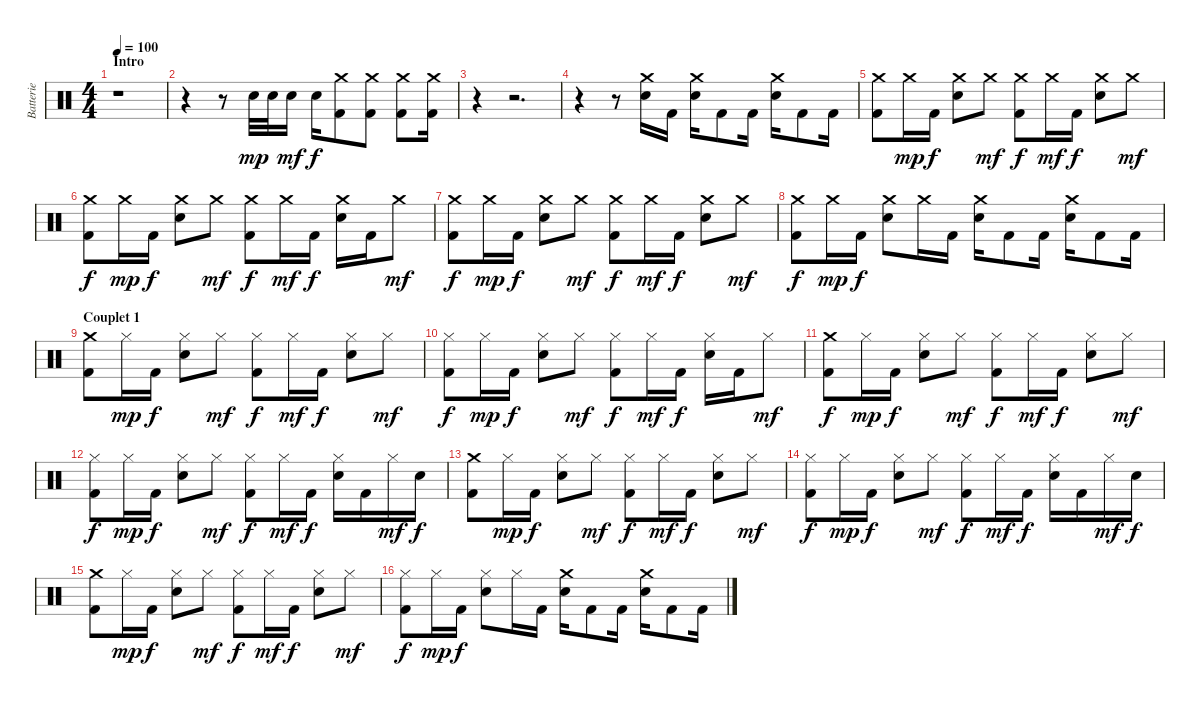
\track ("Batterie" "Batterie") {instrument percussion}
\staff {score}
\articulation defaults
\ts (4 4)
\section ("" "Intro")
\tempo 100
\clef neutral
\ks c
r.1{dy mp} |
r.4 r.8 "Electric Snare (hit)".32 "Electric Snare (hit)".32 "Electric Snare (hit)".16{dy mf} "Electric Snare (hit)".16{dy f} ("Crash medium (hit)" "Kick (hit) 2").8 ("Crash medium (hit)" "Kick (hit) 2").8 ("Crash medium (hit)" "Kick (hit) 2").8 ("Crash medium (hit)" "Kick (hit) 2").16 |
r.4 r.2{d} |
r.4 r.8 ("Crash medium (hit)" "Electric Snare (hit)").16 "Kick (hit) 2".16 ("Crash medium (hit)" "Electric Snare (hit)").16 "Kick (hit) 2".8 "Kick (hit) 2".16 ("Crash medium (hit)" "Electric Snare (hit)").16 "Kick (hit) 2".8 "Kick (hit) 2".16 |
("Crash medium (hit)" "Kick (hit) 2").8 "Crash medium (hit)".16{dy mp} "Kick (hit) 2".16{dy f} ("Crash medium (hit)" "Electric Snare (hit)").8 "Crash medium (hit)".8{dy mf} ("Crash medium (hit)" "Kick (hit) 2").8{dy f} "Crash medium (hit)".16{dy mf} "Kick (hit) 2".16{dy f} ("Crash medium (hit)" "Electric Snare (hit)").8 "Crash medium (hit)".8{dy mf} |
("Crash medium (hit)" "Kick (hit) 2").8{dy f} "Crash medium (hit)".16{dy mp} "Kick (hit) 2".16{dy f} ("Crash medium (hit)" "Electric Snare (hit)").8 "Crash medium (hit)".8{dy mf} ("Crash medium (hit)" "Kick (hit) 2").8{dy f} "Crash medium (hit)".16{dy mf} "Kick (hit) 2".16{dy f} ("Crash medium (hit)" "Electric Snare (hit)").16 "Kick (hit) 2".16 "Crash medium (hit)".8{dy mf} |
("Crash medium (hit)" "Kick (hit) 2").8{dy f} "Crash medium (hit)".16{dy mp} "Kick (hit) 2".16{dy f} ("Crash medium (hit)" "Electric Snare (hit)").8 "Crash medium (hit)".8{dy mf} ("Crash medium (hit)" "Kick (hit) 2").8{dy f} "Crash medium (hit)".16{dy mf} "Kick (hit) 2".16{dy f} ("Crash medium (hit)" "Electric Snare (hit)").8 "Crash medium (hit)".8{dy mf} |
("Crash medium (hit)" "Kick (hit) 2").8{dy f} "Crash medium (hit)".16{dy mp} "Kick (hit) 2".16{dy f} ("Crash medium (hit)" "Electric Snare (hit)").8 "Crash medium (hit)".16 "Kick (hit) 2".16 ("Crash medium (hit)" "Electric Snare (hit)").16 "Kick (hit) 2".8 "Kick (hit) 2".16 ("Crash medium (hit)" "Electric Snare (hit)").16 "Kick (hit) 2".8 "Kick (hit) 2".16 |
\section ("" "Couplet 1")
("Crash medium (hit)" "Kick (hit) 2").8 "Hi-Hat (closed)".16{dy mp} "Kick (hit) 2".16{dy f} ("Hi-Hat (closed)" "Electric Snare (hit)").8 "Hi-Hat (closed)".8{dy mf} ("Hi-Hat (closed)" "Kick (hit) 2").8{dy f} "Hi-Hat (closed)".16{dy mf} "Kick (hit) 2".16{dy f} ("Hi-Hat (closed)" "Electric Snare (hit)").8 "Hi-Hat (closed)".8{dy mf} |
("Hi-Hat (closed)" "Kick (hit) 2").8{dy f} "Hi-Hat (closed)".16{dy mp} "Kick (hit) 2".16{dy f} ("Hi-Hat (closed)" "Electric Snare (hit)").8 "Hi-Hat (closed)".8{dy mf} ("Hi-Hat (closed)" "Kick (hit) 2").8{dy f} "Hi-Hat (closed)".16{dy mf} "Kick (hit) 2".16{dy f} ("Hi-Hat (closed)" "Electric Snare (hit)").16 "Kick (hit) 2".16 "Hi-Hat (closed)".8{dy mf} |
("Crash medium (hit)" "Kick (hit) 2").8{dy f} "Hi-Hat (closed)".16{dy mp} "Kick (hit) 2".16{dy f} ("Hi-Hat (closed)" "Electric Snare (hit)").8 "Hi-Hat (closed)".8{dy mf} ("Hi-Hat (closed)" "Kick (hit) 2").8{dy f} "Hi-Hat (closed)".16{dy mf} "Kick (hit) 2".16{dy f} ("Hi-Hat (closed)" "Electric Snare (hit)").8 "Hi-Hat (closed)".8{dy mf} |
("Hi-Hat (closed)" "Kick (hit) 2").8{dy f} "Hi-Hat (closed)".16{dy mp} "Kick (hit) 2".16{dy f} ("Hi-Hat (closed)" "Electric Snare (hit)").8 "Hi-Hat (closed)".8{dy mf} ("Hi-Hat (closed)" "Kick (hit) 2").8{dy f} "Hi-Hat (closed)".16{dy mf} "Kick (hit) 2".16{dy f} ("Hi-Hat (closed)" "Electric Snare (hit)").16 "Kick (hit) 2".16 "Hi-Hat (closed)".16{dy mf} "Electric Snare (hit)".16{dy f} |
("Crash medium (hit)" "Kick (hit) 2").8 "Hi-Hat (closed)".16{dy mp} "Kick (hit) 2".16{dy f} ("Hi-Hat (closed)" "Electric Snare (hit)").8 "Hi-Hat (closed)".8{dy mf} ("Hi-Hat (closed)" "Kick (hit) 2").8{dy f} "Hi-Hat (closed)".16{dy mf} "Kick (hit) 2".16{dy f} ("Hi-Hat (closed)" "Electric Snare (hit)").8 "Hi-Hat (closed)".8{dy mf} |
("Hi-Hat (closed)" "Kick (hit) 2").8{dy f} "Hi-Hat (closed)".16{dy mp} "Kick (hit) 2".16{dy f} ("Hi-Hat (closed)" "Electric Snare (hit)").8 "Hi-Hat (closed)".8{dy mf} ("Hi-Hat (closed)" "Kick (hit) 2").8{dy f} "Hi-Hat (closed)".16{dy mf} "Kick (hit) 2".16{dy f} ("Hi-Hat (closed)" "Electric Snare (hit)").16 "Kick (hit) 2".16 "Hi-Hat (closed)".16{dy mf} "Electric Snare (hit)".16{dy f} |
("Crash medium (hit)" "Kick (hit) 2").8 "Hi-Hat (closed)".16{dy mp} "Kick (hit) 2".16{dy f} ("Hi-Hat (closed)" "Electric Snare (hit)").8 "Hi-Hat (closed)".8{dy mf} ("Hi-Hat (closed)" "Kick (hit) 2").8{dy f} "Hi-Hat (closed)".16{dy mf} "Kick (hit) 2".16{dy f} ("Hi-Hat (closed)" "Electric Snare (hit)").8 "Hi-Hat (closed)".8{dy mf} |
("Hi-Hat (closed)" "Kick (hit) 2").8{dy f} "Hi-Hat (closed)".16{dy mp} "Kick (hit) 2".16{dy f} ("Hi-Hat (closed)" "Electric Snare (hit)").8 "Hi-Hat (closed)".16 "Kick (hit) 2".16 ("Crash medium (hit)" "Electric Snare (hit)").16 "Kick (hit) 2".8 "Kick (hit) 2".16 ("Crash medium (hit)" "Electric Snare (hit)").16 "Kick (hit) 2".8 "Kick (hit) 2".16
